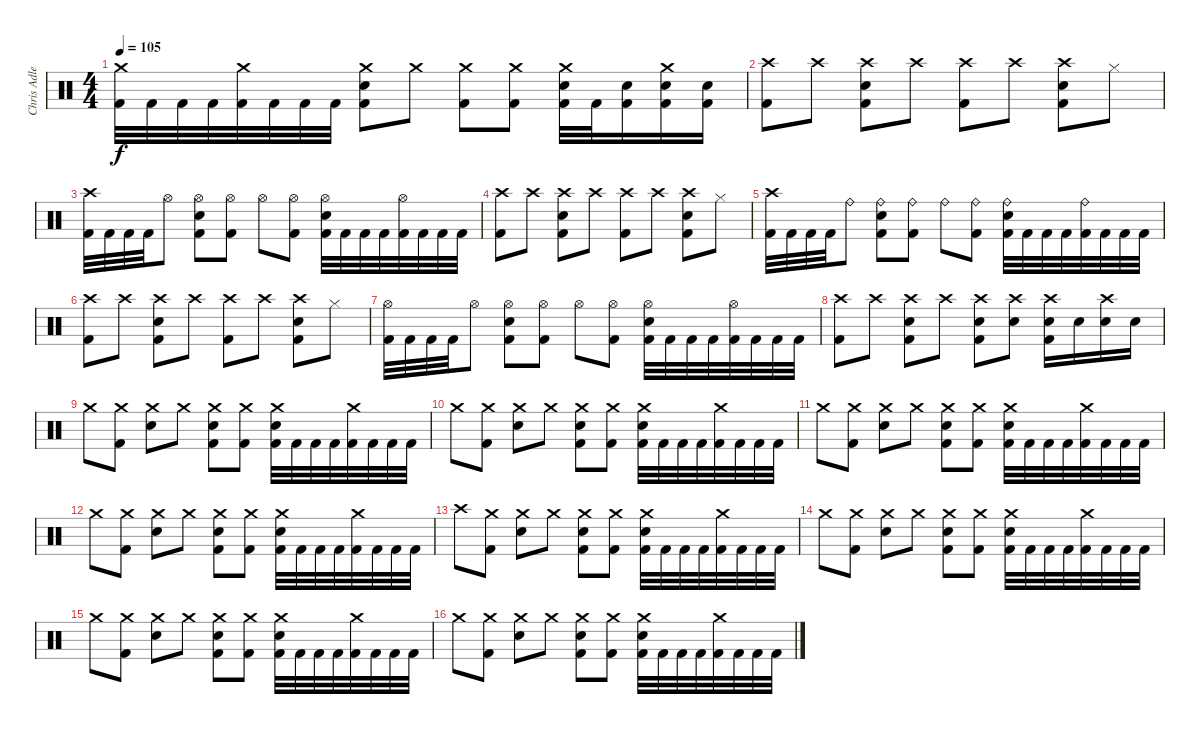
\track ("Chris Adler" "Chris Adle") {instrument percussion}
\staff {score}
\articulation defaults
\ts (4 4)
\tempo 105
\clef neutral
\ks c
("Crash medium (hit)" "Kick (hit) 2").32{dy f} "Kick (hit) 2".32 "Kick (hit) 2".32 "Kick (hit) 2".32 ("Crash medium (hit)" "Kick (hit) 2").32 "Kick (hit) 2".32 "Kick (hit) 2".32 "Kick (hit) 2".32 ("Crash medium (hit)" "Electric Snare (hit)" "Kick (hit) 2").8 "Crash medium (hit)".8 ("Crash medium (hit)" "Kick (hit) 2").8 ("Crash medium (hit)" "Kick (hit) 2").8 ("Crash medium (hit)" "Electric Snare (hit)" "Kick (hit) 2").32 "Kick (hit) 2".32 ("Electric Snare (hit)" "Kick (hit) 2").16 ("Crash medium (hit)" "Electric Snare (hit)" "Kick (hit) 2").16 ("Electric Snare (hit)" "Kick (hit) 2").16 |
("Crash high (hit)" "Kick (hit) 2").8 "Crash high (hit)".8 ("Crash high (hit)" "Electric Snare (hit)" "Kick (hit) 2").8 "Crash high (hit)".8 ("Crash high (hit)" "Kick (hit) 2").8 "Crash high (hit)".8 ("Crash high (hit)" "Electric Snare (hit)" "Kick (hit) 2").8 "Hi-Hat (closed)".8 |
("Crash high (hit)" "Kick (hit) 2").32 "Kick (hit) 2".32 "Kick (hit) 2".32 "Kick (hit) 2".32 "Hi-Hat (open)".8 ("Hi-Hat (open)" "Electric Snare (hit)" "Kick (hit) 2").8 ("Hi-Hat (open)" "Kick (hit) 2").8 "Hi-Hat (open)".8 ("Hi-Hat (open)" "Kick (hit) 2").8 ("Hi-Hat (open)" "Electric Snare (hit)" "Kick (hit) 2").32 "Kick (hit) 2".32 "Kick (hit) 2".32 "Kick (hit) 2".32 ("Hi-Hat (open)" "Kick (hit) 2").32 "Kick (hit) 2".32 "Kick (hit) 2".32 "Kick (hit) 2".32 |
("Crash high (hit)" "Kick (hit) 2").8 "Crash high (hit)".8 ("Crash high (hit)" "Electric Snare (hit)" "Kick (hit) 2").8 "Crash high (hit)".8 ("Crash high (hit)" "Kick (hit) 2").8 "Crash high (hit)".8 ("Crash high (hit)" "Electric Snare (hit)" "Kick (hit) 2").8 "Hi-Hat (closed)".8 |
("Crash high (hit)" "Kick (hit) 2").32 "Kick (hit) 2".32 "Kick (hit) 2".32 "Kick (hit) 2".32 "Ride (bell)".8 ("Ride (bell)" "Electric Snare (hit)" "Kick (hit) 2").8 ("Ride (bell)" "Kick (hit) 2").8 "Ride (bell)".8 ("Ride (bell)" "Kick (hit) 2").8 ("Ride (bell)" "Electric Snare (hit)" "Kick (hit) 2").32 "Kick (hit) 2".32 "Kick (hit) 2".32 "Kick (hit) 2".32 ("Ride (bell)" "Kick (hit) 2").32 "Kick (hit) 2".32 "Kick (hit) 2".32 "Kick (hit) 2".32 |
("Crash high (hit)" "Kick (hit) 2").8 "Crash high (hit)".8 ("Crash high (hit)" "Electric Snare (hit)" "Kick (hit) 2").8 "Crash high (hit)".8 ("Crash high (hit)" "Kick (hit) 2").8 "Crash high (hit)".8 ("Crash high (hit)" "Electric Snare (hit)" "Kick (hit) 2").8 "Hi-Hat (closed)".8 |
("Hi-Hat (open)" "Kick (hit) 2").32 "Kick (hit) 2".32 "Kick (hit) 2".32 "Kick (hit) 2".32 "Hi-Hat (open)".8 ("Hi-Hat (open)" "Electric Snare (hit)" "Kick (hit) 2").8 ("Hi-Hat (open)" "Kick (hit) 2").8 "Hi-Hat (open)".8 ("Hi-Hat (open)" "Kick (hit) 2").8 ("Hi-Hat (open)" "Electric Snare (hit)" "Kick (hit) 2").32 "Kick (hit) 2".32 "Kick (hit) 2".32 "Kick (hit) 2".32 ("Hi-Hat (open)" "Kick (hit) 2").32 "Kick (hit) 2".32 "Kick (hit) 2".32 "Kick (hit) 2".32 |
("Crash high (hit)" "Kick (hit) 2").8 "Crash high (hit)".8 ("Crash high (hit)" "Electric Snare (hit)" "Kick (hit) 2").8 "Crash high (hit)".8 ("Crash high (hit)" "Electric Snare (hit)" "Kick (hit) 2").8 ("Crash high (hit)" "Electric Snare (hit)").8 ("Crash high (hit)" "Electric Snare (hit)" "Kick (hit) 2").16 "Electric Snare (hit)".16 ("Crash high (hit)" "Electric Snare (hit)").16 "Electric Snare (hit)".16 |
"Crash medium (hit)".8 ("Crash medium (hit)" "Kick (hit) 2").8 ("Crash medium (hit)" "Electric Snare (hit)").8 "Crash medium (hit)".8 ("Crash medium (hit)" "Electric Snare (hit)" "Kick (hit) 2").8 ("Crash medium (hit)" "Kick (hit) 2").8 ("Crash medium (hit)" "Electric Snare (hit)" "Kick (hit) 2").32 "Kick (hit) 2".32 "Kick (hit) 2".32 "Kick (hit) 2".32 ("Crash medium (hit)" "Kick (hit) 2").32 "Kick (hit) 2".32 "Kick (hit) 2".32 "Kick (hit) 2".32 |
"Crash medium (hit)".8 ("Crash medium (hit)" "Kick (hit) 2").8 ("Crash medium (hit)" "Electric Snare (hit)").8 "Crash medium (hit)".8 ("Crash medium (hit)" "Electric Snare (hit)" "Kick (hit) 2").8 ("Crash medium (hit)" "Kick (hit) 2").8 ("Crash medium (hit)" "Electric Snare (hit)" "Kick (hit) 2").32 "Kick (hit) 2".32 "Kick (hit) 2".32 "Kick (hit) 2".32 ("Crash medium (hit)" "Kick (hit) 2").32 "Kick (hit) 2".32 "Kick (hit) 2".32 "Kick (hit) 2".32 |
"Crash medium (hit)".8 ("Crash medium (hit)" "Kick (hit) 2").8 ("Crash medium (hit)" "Electric Snare (hit)").8 "Crash medium (hit)".8 ("Crash medium (hit)" "Electric Snare (hit)" "Kick (hit) 2").8 ("Crash medium (hit)" "Kick (hit) 2").8 ("Crash medium (hit)" "Electric Snare (hit)" "Kick (hit) 2").32 "Kick (hit) 2".32 "Kick (hit) 2".32 "Kick (hit) 2".32 ("Crash medium (hit)" "Kick (hit) 2").32 "Kick (hit) 2".32 "Kick (hit) 2".32 "Kick (hit) 2".32 |
"Crash medium (hit)".8 ("Crash medium (hit)" "Kick (hit) 2").8 ("Crash medium (hit)" "Electric Snare (hit)").8 "Crash medium (hit)".8 ("Crash medium (hit)" "Electric Snare (hit)" "Kick (hit) 2").8 ("Crash medium (hit)" "Kick (hit) 2").8 ("Crash medium (hit)" "Electric Snare (hit)" "Kick (hit) 2").32 "Kick (hit) 2".32 "Kick (hit) 2".32 "Kick (hit) 2".32 ("Crash medium (hit)" "Kick (hit) 2").32 "Kick (hit) 2".32 "Kick (hit) 2".32 "Kick (hit) 2".32 |
"Crash high (hit)".8 ("Crash medium (hit)" "Kick (hit) 2").8 ("Crash medium (hit)" "Electric Snare (hit)").8 "Crash medium (hit)".8 ("Crash medium (hit)" "Electric Snare (hit)" "Kick (hit) 2").8 ("Crash medium (hit)" "Kick (hit) 2").8 ("Crash medium (hit)" "Electric Snare (hit)" "Kick (hit) 2").32 "Kick (hit) 2".32 "Kick (hit) 2".32 "Kick (hit) 2".32 ("Crash medium (hit)" "Kick (hit) 2").32 "Kick (hit) 2".32 "Kick (hit) 2".32 "Kick (hit) 2".32 |
"Crash medium (hit)".8 ("Crash medium (hit)" "Kick (hit) 2").8 ("Crash medium (hit)" "Electric Snare (hit)").8 "Crash medium (hit)".8 ("Crash medium (hit)" "Electric Snare (hit)" "Kick (hit) 2").8 ("Crash medium (hit)" "Kick (hit) 2").8 ("Crash medium (hit)" "Electric Snare (hit)" "Kick (hit) 2").32 "Kick (hit) 2".32 "Kick (hit) 2".32 "Kick (hit) 2".32 ("Crash medium (hit)" "Kick (hit) 2").32 "Kick (hit) 2".32 "Kick (hit) 2".32 "Kick (hit) 2".32 |
"Crash medium (hit)".8 ("Crash medium (hit)" "Kick (hit) 2").8 ("Crash medium (hit)" "Electric Snare (hit)").8 "Crash medium (hit)".8 ("Crash medium (hit)" "Electric Snare (hit)" "Kick (hit) 2").8 ("Crash medium (hit)" "Kick (hit) 2").8 ("Crash medium (hit)" "Electric Snare (hit)" "Kick (hit) 2").32 "Kick (hit) 2".32 "Kick (hit) 2".32 "Kick (hit) 2".32 ("Crash medium (hit)" "Kick (hit) 2").32 "Kick (hit) 2".32 "Kick (hit) 2".32 "Kick (hit) 2".32 |
"Crash medium (hit)".8 ("Crash medium (hit)" "Kick (hit) 2").8 ("Crash medium (hit)" "Electric Snare (hit)").8 "Crash medium (hit)".8 ("Crash medium (hit)" "Electric Snare (hit)" "Kick (hit) 2").8 ("Crash medium (hit)" "Kick (hit) 2").8 ("Crash medium (hit)" "Electric Snare (hit)" "Kick (hit) 2").32 "Kick (hit) 2".32 "Kick (hit) 2".32 "Kick (hit) 2".32 ("Crash medium (hit)" "Kick (hit) 2").32 "Kick (hit) 2".32 "Kick (hit) 2".32 "Kick (hit) 2".32
